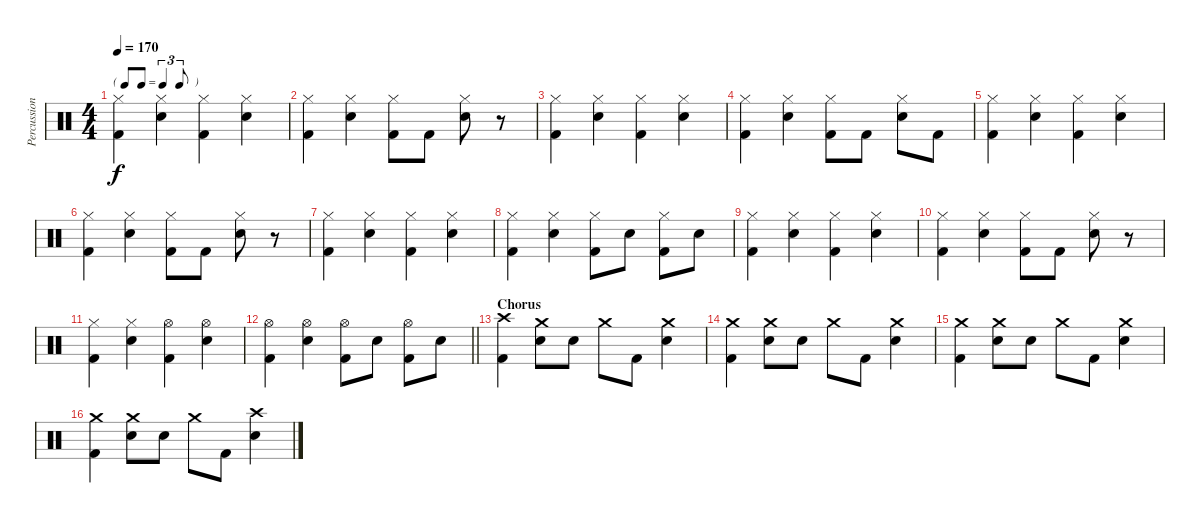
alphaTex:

\track ("Percussion" "Percussion") {instrument percussion}
\staff {score}
\articulation defaults
\ts (4 4)
\tf triplet8th
\tempo 170
\clef neutral
\ks c
("Hi-Hat (closed)" "Kick (hit) 2").4{dy f} ("Hi-Hat (closed)" "Electric Snare (hit)").4 ("Hi-Hat (closed)" "Kick (hit) 2").4 ("Hi-Hat (closed)" "Electric Snare (hit)").4 |
("Hi-Hat (closed)" "Kick (hit) 2").4 ("Hi-Hat (closed)" "Electric Snare (hit)").4 ("Hi-Hat (closed)" "Kick (hit) 2").8 "Kick (hit) 2".8 ("Hi-Hat (closed)" "Electric Snare (hit)").8 r.8 |
("Hi-Hat (closed)" "Kick (hit) 2").4 ("Hi-Hat (closed)" "Electric Snare (hit)").4 ("Hi-Hat (closed)" "Kick (hit) 2").4 ("Hi-Hat (closed)" "Electric Snare (hit)").4 |
("Hi-Hat (closed)" "Kick (hit) 2").4 ("Hi-Hat (closed)" "Electric Snare (hit)").4 ("Hi-Hat (closed)" "Kick (hit) 2").8 "Kick (hit) 2".8 ("Hi-Hat (closed)" "Electric Snare (hit)").8 "Kick (hit) 2".8 |
("Hi-Hat (closed)" "Kick (hit) 2").4 ("Hi-Hat (closed)" "Electric Snare (hit)").4 ("Hi-Hat (closed)" "Kick (hit) 2").4 ("Hi-Hat (closed)" "Electric Snare (hit)").4 |
("Hi-Hat (closed)" "Kick (hit) 2").4 ("Hi-Hat (closed)" "Electric Snare (hit)").4 ("Hi-Hat (closed)" "Kick (hit) 2").8 "Kick (hit) 2".8 ("Hi-Hat (closed)" "Electric Snare (hit)").8 r.8 |
("Hi-Hat (closed)" "Kick (hit) 2").4 ("Hi-Hat (closed)" "Electric Snare (hit)").4 ("Hi-Hat (closed)" "Kick (hit) 2").4 ("Hi-Hat (closed)" "Electric Snare (hit)").4 |
("Hi-Hat (closed)" "Kick (hit) 2").4 ("Hi-Hat (closed)" "Electric Snare (hit)").4 ("Hi-Hat (closed)" "Kick (hit) 2").8 "Electric Snare (hit)".8 ("Hi-Hat (closed)" "Kick (hit) 2").8 "Electric Snare (hit)".8 |
("Hi-Hat (closed)" "Kick (hit) 2").4 ("Hi-Hat (closed)" "Electric Snare (hit)").4 ("Hi-Hat (closed)" "Kick (hit) 2").4 ("Hi-Hat (closed)" "Electric Snare (hit)").4 |
("Hi-Hat (closed)" "Kick (hit) 2").4 ("Hi-Hat (closed)" "Electric Snare (hit)").4 ("Hi-Hat (closed)" "Kick (hit) 2").8 "Kick (hit) 2".8 ("Hi-Hat (closed)" "Electric Snare (hit)").8 r.8 |
("Hi-Hat (closed)" "Kick (hit) 2").4 ("Hi-Hat (closed)" "Electric Snare (hit)").4 ("Hi-Hat (open)" "Kick (hit) 2").4 ("Hi-Hat (open)" "Electric Snare (hit)").4 |
\barLineRight lightlight
("Hi-Hat (open)" "Kick (hit) 2").4 ("Hi-Hat (open)" "Electric Snare (hit)").4 ("Hi-Hat (open)" "Kick (hit) 2").8 "Electric Snare (hit)".8 ("Hi-Hat (open)" "Kick (hit) 2").8 "Electric Snare (hit)".8 |
\section ("" "Chorus")
("Crash high (hit)" "Kick (hit) 2").4 ("Crash medium (hit)" "Electric Snare (hit)").8 "Electric Snare (hit)".8 "Crash medium (hit)".8 "Kick (hit) 2".8 ("Crash medium (hit)" "Electric Snare (hit)").4 |
("Crash medium (hit)" "Kick (hit) 2").4 ("Crash medium (hit)" "Electric Snare (hit)").8 "Electric Snare (hit)".8 "Crash medium (hit)".8 "Kick (hit) 2".8 ("Crash medium (hit)" "Electric Snare (hit)").4 |
("Crash medium (hit)" "Kick (hit) 2").4 ("Crash medium (hit)" "Electric Snare (hit)").8 "Electric Snare (hit)".8 "Crash medium (hit)".8 "Kick (hit) 2".8 ("Crash medium (hit)" "Electric Snare (hit)").4 |
("Crash medium (hit)" "Kick (hit) 2").4 ("Crash medium (hit)" "Electric Snare (hit)").8 "Electric Snare (hit)".8 "Crash medium (hit)".8 "Kick (hit) 2".8 ("Crash high (hit)" "Electric Snare (hit)").4
